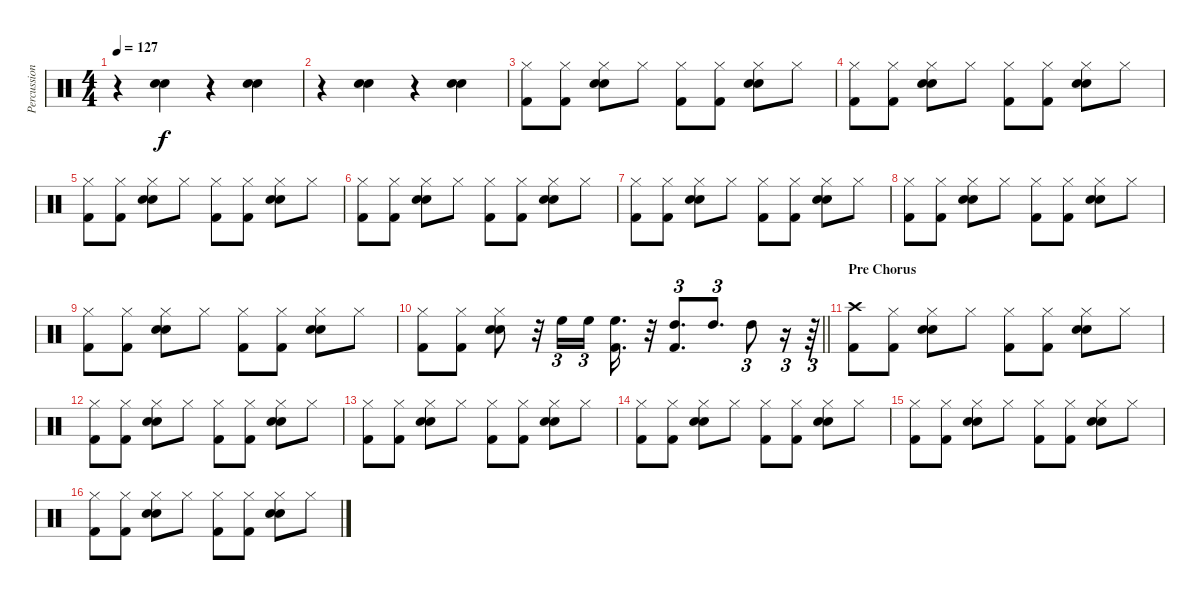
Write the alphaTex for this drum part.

\track ("Percussion" "Percussion") {instrument percussion}
\staff {score}
\articulation defaults
\ts (4 4)
\tempo 127
\clef neutral
\ks c
r.4{dy f} ("Electric Snare (hit)" "Snare (hit) 2").4 r.4 ("Electric Snare (hit)" "Snare (hit) 2").4 |
r.4 ("Electric Snare (hit)" "Snare (hit) 2").4 r.4 ("Electric Snare (hit)" "Snare (hit) 2").4 |
("Hi-Hat (closed)" "Kick (hit) 2").8 ("Hi-Hat (closed)" "Kick (hit) 2").8 ("Hi-Hat (closed)" "Snare (hit) 2" "Electric Snare (hit)").8 "Hi-Hat (closed)".8 ("Hi-Hat (closed)" "Kick (hit) 2").8 ("Hi-Hat (closed)" "Kick (hit) 2").8 ("Hi-Hat (closed)" "Snare (hit) 2" "Electric Snare (hit)").8 "Hi-Hat (closed)".8 |
("Hi-Hat (closed)" "Kick (hit) 2").8 ("Hi-Hat (closed)" "Kick (hit) 2").8 ("Hi-Hat (closed)" "Snare (hit) 2" "Electric Snare (hit)").8 "Hi-Hat (closed)".8 ("Hi-Hat (closed)" "Kick (hit) 2").8 ("Hi-Hat (closed)" "Kick (hit) 2").8 ("Hi-Hat (closed)" "Snare (hit) 2" "Electric Snare (hit)").8 "Hi-Hat (closed)".8 |
("Hi-Hat (closed)" "Kick (hit) 2").8 ("Hi-Hat (closed)" "Kick (hit) 2").8 ("Hi-Hat (closed)" "Snare (hit) 2" "Electric Snare (hit)").8 "Hi-Hat (closed)".8 ("Hi-Hat (closed)" "Kick (hit) 2").8 ("Hi-Hat (closed)" "Kick (hit) 2").8 ("Hi-Hat (closed)" "Snare (hit) 2" "Electric Snare (hit)").8 "Hi-Hat (closed)".8 |
("Hi-Hat (closed)" "Kick (hit) 2").8 ("Hi-Hat (closed)" "Kick (hit) 2").8 ("Hi-Hat (closed)" "Snare (hit) 2" "Electric Snare (hit)").8 "Hi-Hat (closed)".8 ("Hi-Hat (closed)" "Kick (hit) 2").8 ("Hi-Hat (closed)" "Kick (hit) 2").8 ("Hi-Hat (closed)" "Snare (hit) 2" "Electric Snare (hit)").8 "Hi-Hat (closed)".8 |
("Hi-Hat (closed)" "Kick (hit) 2").8 ("Hi-Hat (closed)" "Kick (hit) 2").8 ("Hi-Hat (closed)" "Snare (hit) 2" "Electric Snare (hit)").8 "Hi-Hat (closed)".8 ("Hi-Hat (closed)" "Kick (hit) 2").8 ("Hi-Hat (closed)" "Kick (hit) 2").8 ("Hi-Hat (closed)" "Snare (hit) 2" "Electric Snare (hit)").8 "Hi-Hat (closed)".8 |
("Hi-Hat (closed)" "Kick (hit) 2").8 ("Hi-Hat (closed)" "Kick (hit) 2").8 ("Hi-Hat (closed)" "Snare (hit) 2" "Electric Snare (hit)").8 "Hi-Hat (closed)".8 ("Hi-Hat (closed)" "Kick (hit) 2").8 ("Hi-Hat (closed)" "Kick (hit) 2").8 ("Hi-Hat (closed)" "Snare (hit) 2" "Electric Snare (hit)").8 "Hi-Hat (closed)".8 |
("Hi-Hat (closed)" "Kick (hit) 2").8 ("Hi-Hat (closed)" "Kick (hit) 2").8 ("Hi-Hat (closed)" "Snare (hit) 2" "Electric Snare (hit)").8 "Hi-Hat (closed)".8 ("Hi-Hat (closed)" "Kick (hit) 2").8 ("Hi-Hat (closed)" "Kick (hit) 2").8 ("Hi-Hat (closed)" "Snare (hit) 2" "Electric Snare (hit)").8 "Hi-Hat (closed)".8 |
\barLineRight lightlight
("Hi-Hat (closed)" "Kick (hit) 2").8 ("Hi-Hat (closed)" "Kick (hit) 2").8 ("Hi-Hat (closed)" "Snare (hit) 2" "Electric Snare (hit)").8 r.32 "High Floor Tom (hit)".16{tu (3 2)} "High Floor Tom (hit)".16{tu (3 2) beam splitsecondary} ("High Floor Tom (hit)" "Kick (hit) 2").16{d} r.32 ("High Tom (hit)" "Kick (hit) 2").8{d tu (3 2)} "High Tom (hit)".8{d tu (3 2)} "High Tom (hit)".8{tu (3 2)} r.16{tu (3 2)} r.64{tu (3 2)} |
\section ("" "Pre Chorus")
("Crash high (hit)" "Kick (hit) 2").8 ("Hi-Hat (closed)" "Kick (hit) 2").8 ("Hi-Hat (closed)" "Snare (hit) 2" "Electric Snare (hit)").8 "Hi-Hat (closed)".8 ("Hi-Hat (closed)" "Kick (hit) 2").8 ("Hi-Hat (closed)" "Kick (hit) 2").8 ("Hi-Hat (closed)" "Snare (hit) 2" "Electric Snare (hit)").8 "Hi-Hat (closed)".8 |
("Hi-Hat (closed)" "Kick (hit) 2").8 ("Hi-Hat (closed)" "Kick (hit) 2").8 ("Hi-Hat (closed)" "Snare (hit) 2" "Electric Snare (hit)").8 "Hi-Hat (closed)".8 ("Hi-Hat (closed)" "Kick (hit) 2").8 ("Hi-Hat (closed)" "Kick (hit) 2").8 ("Hi-Hat (closed)" "Snare (hit) 2" "Electric Snare (hit)").8 "Hi-Hat (closed)".8 |
("Hi-Hat (closed)" "Kick (hit) 2").8 ("Hi-Hat (closed)" "Kick (hit) 2").8 ("Hi-Hat (closed)" "Snare (hit) 2" "Electric Snare (hit)").8 "Hi-Hat (closed)".8 ("Hi-Hat (closed)" "Kick (hit) 2").8 ("Hi-Hat (closed)" "Kick (hit) 2").8 ("Hi-Hat (closed)" "Snare (hit) 2" "Electric Snare (hit)").8 "Hi-Hat (closed)".8 |
("Hi-Hat (closed)" "Kick (hit) 2").8 ("Hi-Hat (closed)" "Kick (hit) 2").8 ("Hi-Hat (closed)" "Snare (hit) 2" "Electric Snare (hit)").8 "Hi-Hat (closed)".8 ("Hi-Hat (closed)" "Kick (hit) 2").8 ("Hi-Hat (closed)" "Kick (hit) 2").8 ("Hi-Hat (closed)" "Snare (hit) 2" "Electric Snare (hit)").8 "Hi-Hat (closed)".8 |
("Hi-Hat (closed)" "Kick (hit) 2").8 ("Hi-Hat (closed)" "Kick (hit) 2").8 ("Hi-Hat (closed)" "Snare (hit) 2" "Electric Snare (hit)").8 "Hi-Hat (closed)".8 ("Hi-Hat (closed)" "Kick (hit) 2").8 ("Hi-Hat (closed)" "Kick (hit) 2").8 ("Hi-Hat (closed)" "Snare (hit) 2" "Electric Snare (hit)").8 "Hi-Hat (closed)".8 |
("Hi-Hat (closed)" "Kick (hit) 2").8 ("Hi-Hat (closed)" "Kick (hit) 2").8 ("Hi-Hat (closed)" "Snare (hit) 2" "Electric Snare (hit)").8 "Hi-Hat (closed)".8 ("Hi-Hat (closed)" "Kick (hit) 2").8 ("Hi-Hat (closed)" "Kick (hit) 2").8 ("Hi-Hat (closed)" "Snare (hit) 2" "Electric Snare (hit)").8 "Hi-Hat (closed)".8
